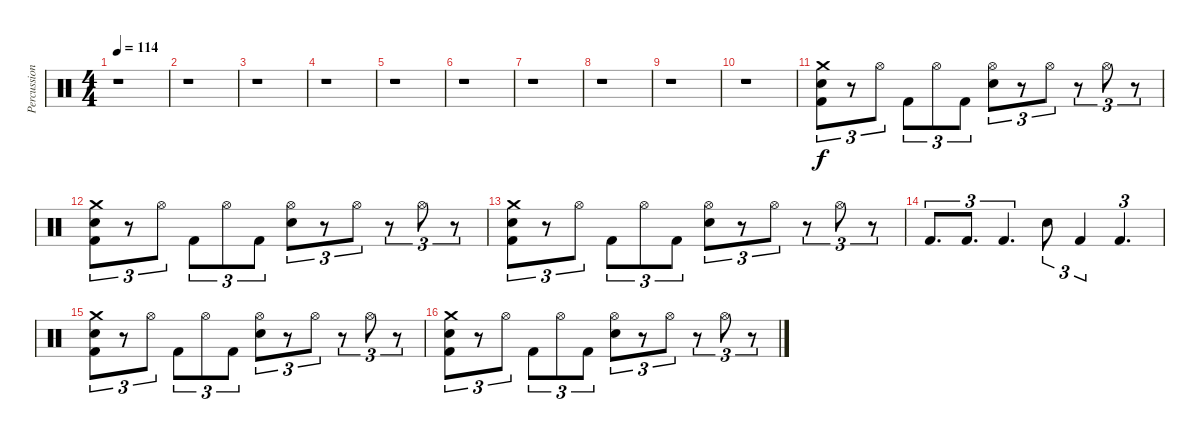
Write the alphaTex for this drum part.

\track ("Percussion" "Percussion") {instrument percussion}
\staff {score}
\articulation defaults
\ts (4 4)
\tempo 114
\clef neutral
\ks c
r.1{dy f} |
r.1 |
r.1 |
r.1 |
r.1 |
r.1 |
r.1 |
r.1 |
r.1 |
r.1 |
("Crash medium (hit)" "Electric Snare (hit)" "Kick (hit) 2").8{tu (3 2)} r.8{tu (3 2)} "Hi-Hat (open)".8{tu (3 2)} "Kick (hit) 2".8{tu (3 2)} "Hi-Hat (open)".8{tu (3 2)} "Kick (hit) 2".8{tu (3 2)} ("Hi-Hat (open)" "Electric Snare (hit)").8{tu (3 2)} r.8{tu (3 2)} "Hi-Hat (open)".8{tu (3 2)} r.8{tu (3 2)} "Hi-Hat (open)".8{tu (3 2)} r.8{tu (3 2)} |
("Crash medium (hit)" "Electric Snare (hit)" "Kick (hit) 2").8{tu (3 2)} r.8{tu (3 2)} "Hi-Hat (open)".8{tu (3 2)} "Kick (hit) 2".8{tu (3 2)} "Hi-Hat (open)".8{tu (3 2)} "Kick (hit) 2".8{tu (3 2)} ("Hi-Hat (open)" "Electric Snare (hit)").8{tu (3 2)} r.8{tu (3 2)} "Hi-Hat (open)".8{tu (3 2)} r.8{tu (3 2)} "Hi-Hat (open)".8{tu (3 2)} r.8{tu (3 2)} |
("Crash medium (hit)" "Electric Snare (hit)" "Kick (hit) 2").8{tu (3 2)} r.8{tu (3 2)} "Hi-Hat (open)".8{tu (3 2)} "Kick (hit) 2".8{tu (3 2)} "Hi-Hat (open)".8{tu (3 2)} "Kick (hit) 2".8{tu (3 2)} ("Hi-Hat (open)" "Electric Snare (hit)").8{tu (3 2)} r.8{tu (3 2)} "Hi-Hat (open)".8{tu (3 2)} r.8{tu (3 2)} "Hi-Hat (open)".8{tu (3 2)} r.8{tu (3 2)} |
"Kick (hit) 2".8{d tu (3 2)} "Kick (hit) 2".8{d tu (3 2)} "Kick (hit) 2".4{d tu (3 2)} "Electric Snare (hit)".8{tu (3 2)} "Kick (hit) 2".4{tu (3 2)} "Kick (hit) 2".4{d tu (3 2)} |
("Crash medium (hit)" "Electric Snare (hit)" "Kick (hit) 2").8{tu (3 2)} r.8{tu (3 2)} "Hi-Hat (open)".8{tu (3 2)} "Kick (hit) 2".8{tu (3 2)} "Hi-Hat (open)".8{tu (3 2)} "Kick (hit) 2".8{tu (3 2)} ("Hi-Hat (open)" "Electric Snare (hit)").8{tu (3 2)} r.8{tu (3 2)} "Hi-Hat (open)".8{tu (3 2)} r.8{tu (3 2)} "Hi-Hat (open)".8{tu (3 2)} r.8{tu (3 2)} |
("Crash medium (hit)" "Electric Snare (hit)" "Kick (hit) 2").8{tu (3 2)} r.8{tu (3 2)} "Hi-Hat (open)".8{tu (3 2)} "Kick (hit) 2".8{tu (3 2)} "Hi-Hat (open)".8{tu (3 2)} "Kick (hit) 2".8{tu (3 2)} ("Hi-Hat (open)" "Electric Snare (hit)").8{tu (3 2)} r.8{tu (3 2)} "Hi-Hat (open)".8{tu (3 2)} r.8{tu (3 2)} "Hi-Hat (open)".8{tu (3 2)} r.8{tu (3 2)}
